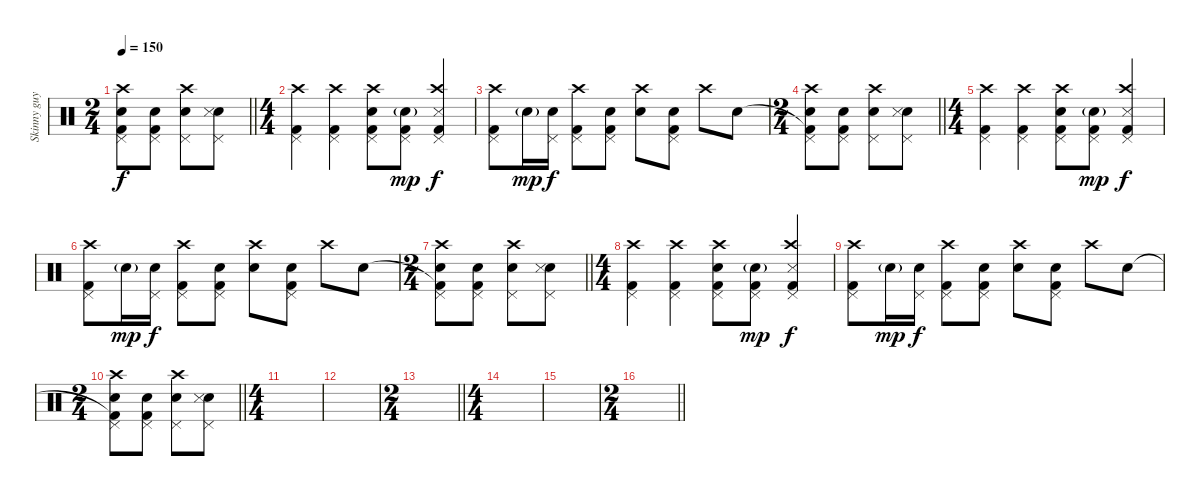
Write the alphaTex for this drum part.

\track ("Skinny guy" "Skinny guy") {instrument percussion}
\staff {score}
\articulation defaults
\ts (2 4)
\tempo 150
\clef neutral
\barLineRight lightlight
\ks c
("Kick (hit) 2"{t} "Pedal Hi-Hat (hit)" "Snare (hit) 2" "Crash high (hit)").8{dy f} ("Kick (hit) 2" "Pedal Hi-Hat (hit)" "Snare (hit) 2").8 ("Pedal Hi-Hat (hit)" "Snare (hit) 2" "Crash high (hit)").8 ("Pedal Hi-Hat (hit)" "Snare (hit) 2" "Snare (side stick) 3").8 |
\ts (4 4)
("Kick (hit) 2" "Pedal Hi-Hat (hit)" "Crash high (hit)").4 ("Kick (hit) 2" "Pedal Hi-Hat (hit)" "Crash high (hit)").4 ("Kick (hit) 2" "Pedal Hi-Hat (hit)" "Snare (hit) 2" "Crash high (hit)").8 ("Kick (hit) 2" "Pedal Hi-Hat (hit)" "Snare (hit) 2"{g}).8{dy mp} ("Kick (hit) 2" "Pedal Hi-Hat (hit)" "Snare (side stick) 3" "Crash high (hit)").4{dy f} |
("Kick (hit) 2" "Pedal Hi-Hat (hit)" "Crash high (hit)").8 "Snare (hit) 2"{g}.16{dy mp} ("Pedal Hi-Hat (hit)" "Snare (hit) 2").16{dy f} ("Kick (hit) 2" "Pedal Hi-Hat (hit)" "Crash high (hit)").8 ("Kick (hit) 2" "Pedal Hi-Hat (hit)" "Snare (hit) 2").8 ("Snare (hit) 2" "Crash high (hit)").8 ("Kick (hit) 2" "Pedal Hi-Hat (hit)" "Snare (hit) 2").8 "Crash high (hit)".8 "Snare (hit) 2".8 |
\ts (2 4)
\barLineRight lightlight
("Kick (hit) 2"{t} "Pedal Hi-Hat (hit)" "Snare (hit) 2" "Crash high (hit)").8 ("Kick (hit) 2" "Pedal Hi-Hat (hit)" "Snare (hit) 2").8 ("Pedal Hi-Hat (hit)" "Snare (hit) 2" "Crash high (hit)").8 ("Pedal Hi-Hat (hit)" "Snare (hit) 2" "Snare (side stick) 3").8 |
\ts (4 4)
("Kick (hit) 2" "Pedal Hi-Hat (hit)" "Crash high (hit)").4 ("Kick (hit) 2" "Pedal Hi-Hat (hit)" "Crash high (hit)").4 ("Kick (hit) 2" "Pedal Hi-Hat (hit)" "Snare (hit) 2" "Crash high (hit)").8 ("Kick (hit) 2" "Pedal Hi-Hat (hit)" "Snare (hit) 2"{g}).8{dy mp} ("Kick (hit) 2" "Pedal Hi-Hat (hit)" "Snare (side stick) 3" "Crash high (hit)").4{dy f} |
("Kick (hit) 2" "Pedal Hi-Hat (hit)" "Crash high (hit)").8 "Snare (hit) 2"{g}.16{dy mp} ("Pedal Hi-Hat (hit)" "Snare (hit) 2").16{dy f} ("Kick (hit) 2" "Pedal Hi-Hat (hit)" "Crash high (hit)").8 ("Kick (hit) 2" "Pedal Hi-Hat (hit)" "Snare (hit) 2").8 ("Snare (hit) 2" "Crash high (hit)").8 ("Kick (hit) 2" "Pedal Hi-Hat (hit)" "Snare (hit) 2").8 "Crash high (hit)".8 "Snare (hit) 2".8 |
\ts (2 4)
\barLineRight lightlight
("Kick (hit) 2"{t} "Pedal Hi-Hat (hit)" "Snare (hit) 2" "Crash high (hit)").8 ("Kick (hit) 2" "Pedal Hi-Hat (hit)" "Snare (hit) 2").8 ("Pedal Hi-Hat (hit)" "Snare (hit) 2" "Crash high (hit)").8 ("Pedal Hi-Hat (hit)" "Snare (hit) 2" "Snare (side stick) 3").8 |
\ts (4 4)
("Kick (hit) 2" "Pedal Hi-Hat (hit)" "Crash high (hit)").4 ("Kick (hit) 2" "Pedal Hi-Hat (hit)" "Crash high (hit)").4 ("Kick (hit) 2" "Pedal Hi-Hat (hit)" "Snare (hit) 2" "Crash high (hit)").8 ("Kick (hit) 2" "Pedal Hi-Hat (hit)" "Snare (hit) 2"{g}).8{dy mp} ("Kick (hit) 2" "Pedal Hi-Hat (hit)" "Snare (side stick) 3" "Crash high (hit)").4{dy f} |
("Kick (hit) 2" "Pedal Hi-Hat (hit)" "Crash high (hit)").8 "Snare (hit) 2"{g}.16{dy mp} ("Pedal Hi-Hat (hit)" "Snare (hit) 2").16{dy f} ("Kick (hit) 2" "Pedal Hi-Hat (hit)" "Crash high (hit)").8 ("Kick (hit) 2" "Pedal Hi-Hat (hit)" "Snare (hit) 2").8 ("Snare (hit) 2" "Crash high (hit)").8 ("Kick (hit) 2" "Pedal Hi-Hat (hit)" "Snare (hit) 2").8 "Crash high (hit)".8 "Snare (hit) 2".8 |
\ts (2 4)
\barLineRight lightlight
("Kick (hit) 2"{t} "Pedal Hi-Hat (hit)" "Snare (hit) 2" "Crash high (hit)").8 ("Kick (hit) 2" "Pedal Hi-Hat (hit)" "Snare (hit) 2").8 ("Pedal Hi-Hat (hit)" "Snare (hit) 2" "Crash high (hit)").8 ("Pedal Hi-Hat (hit)" "Snare (hit) 2" "Snare (side stick) 3").8 |
\ts (4 4)
|
|
\ts (2 4)
\barLineRight lightlight
|
\ts (4 4)
|
|
\ts (2 4)
\barLineRight lightlight
